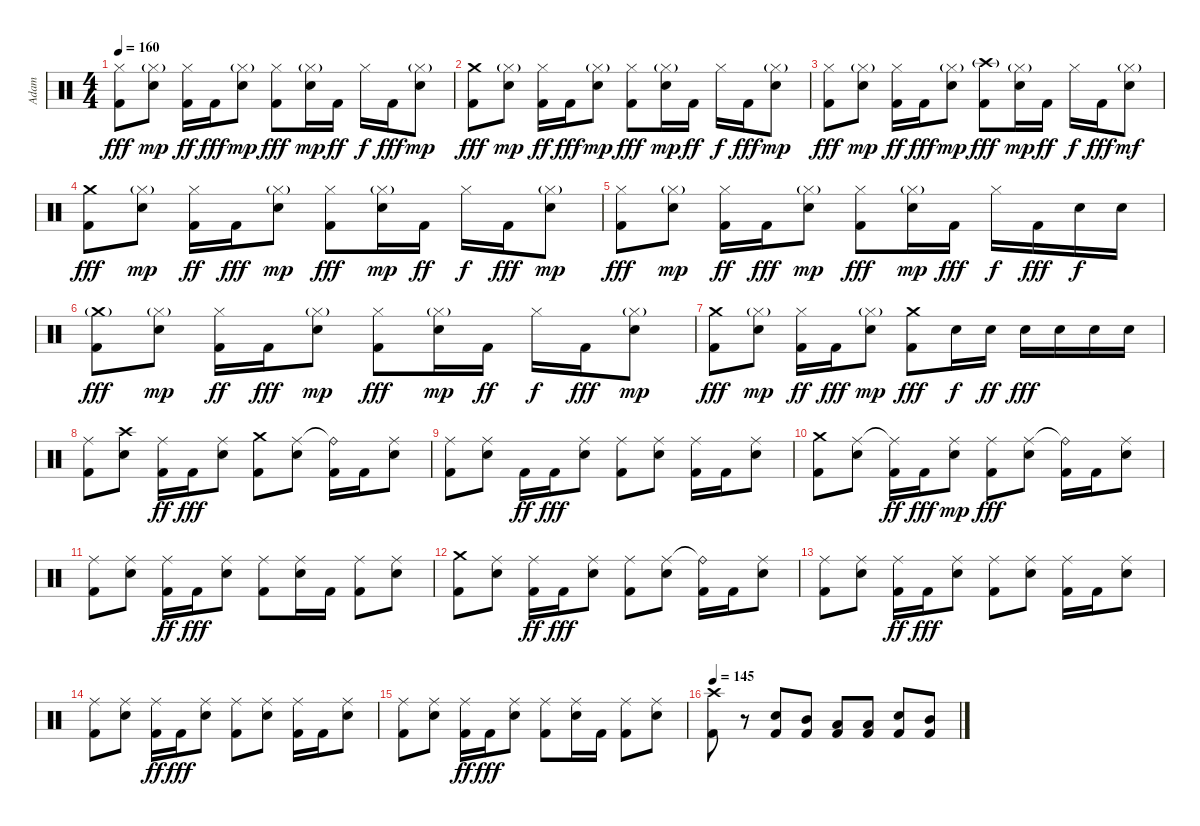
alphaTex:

\track ("Adam" "Adam") {instrument percussion}
\staff {score}
\articulation defaults
\ts (4 4)
\tempo 160
\clef neutral
\ks c
("Hi-Hat (closed)" "Kick (hit) 2").8{dy fff} ("Hi-Hat (closed)"{g} "Electric Snare (hit)").8{dy mp} ("Hi-Hat (closed)" "Kick (hit) 2").16{dy ff} "Kick (hit) 2".16{dy fff} ("Hi-Hat (closed)"{g} "Electric Snare (hit)").8{dy mp} ("Hi-Hat (closed)" "Kick (hit) 2").8{dy fff} ("Hi-Hat (closed)"{g} "Electric Snare (hit)").16{dy mp} "Kick (hit) 2".16{dy ff} "Hi-Hat (closed)".16{dy f} "Kick (hit) 2".16{dy fff} ("Hi-Hat (closed)"{g} "Electric Snare (hit)").8{dy mp} |
("Crash medium (hit)" "Kick (hit) 2").8{dy fff} ("Hi-Hat (closed)"{g} "Electric Snare (hit)").8{dy mp} ("Hi-Hat (closed)" "Kick (hit) 2").16{dy ff} "Kick (hit) 2".16{dy fff} ("Hi-Hat (closed)"{g} "Electric Snare (hit)").8{dy mp} ("Hi-Hat (closed)" "Kick (hit) 2").8{dy fff} ("Hi-Hat (closed)"{g} "Electric Snare (hit)").16{dy mp} "Kick (hit) 2".16{dy ff} "Hi-Hat (closed)".16{dy f} "Kick (hit) 2".16{dy fff} ("Hi-Hat (closed)"{g} "Electric Snare (hit)").8{dy mp} |
("Hi-Hat (closed)" "Kick (hit) 2").8{dy fff} ("Hi-Hat (closed)"{g} "Electric Snare (hit)").8{dy mp} ("Hi-Hat (closed)" "Kick (hit) 2").16{dy ff} "Kick (hit) 2".16{dy fff} ("Hi-Hat (closed)"{g} "Electric Snare (hit)").8{dy mp} ("Crash high (hit)"{g} "Kick (hit) 2").8{dy fff} ("Hi-Hat (closed)"{g} "Electric Snare (hit)").16{dy mp} "Kick (hit) 2".16{dy ff} "Hi-Hat (closed)".16{dy f} "Kick (hit) 2".16{dy fff} ("Hi-Hat (closed)"{g} "Electric Snare (hit)").8{dy mf} |
("Crash medium (hit)" "Kick (hit) 2").8{dy fff} ("Hi-Hat (closed)"{g} "Electric Snare (hit)").8{dy mp} ("Hi-Hat (closed)" "Kick (hit) 2").16{dy ff} "Kick (hit) 2".16{dy fff} ("Hi-Hat (closed)"{g} "Electric Snare (hit)").8{dy mp} ("Hi-Hat (closed)" "Kick (hit) 2").8{dy fff} ("Hi-Hat (closed)"{g} "Electric Snare (hit)").16{dy mp} "Kick (hit) 2".16{dy ff} "Hi-Hat (closed)".16{dy f} "Kick (hit) 2".16{dy fff} ("Hi-Hat (closed)"{g} "Electric Snare (hit)").8{dy mp} |
("Hi-Hat (closed)" "Kick (hit) 2").8{dy fff} ("Hi-Hat (closed)"{g} "Electric Snare (hit)").8{dy mp} ("Hi-Hat (closed)" "Kick (hit) 2").16{dy ff} "Kick (hit) 2".16{dy fff} ("Hi-Hat (closed)"{g} "Electric Snare (hit)").8{dy mp} ("Hi-Hat (closed)" "Kick (hit) 2").8{dy fff} ("Hi-Hat (closed)"{g} "Electric Snare (hit)").16{dy mp} "Kick (hit) 2".16{dy fff} "Hi-Hat (closed)".16{dy f} "Kick (hit) 2".16{dy fff} "Electric Snare (hit)".16{dy f} "Electric Snare (hit)".16 |
("Crash medium (hit)"{g} "Kick (hit) 2").8{dy fff} ("Hi-Hat (closed)"{g} "Electric Snare (hit)").8{dy mp} ("Hi-Hat (closed)" "Kick (hit) 2").16{dy ff} "Kick (hit) 2".16{dy fff} ("Hi-Hat (closed)"{g} "Electric Snare (hit)").8{dy mp} ("Hi-Hat (closed)" "Kick (hit) 2").8{dy fff} ("Hi-Hat (closed)"{g} "Electric Snare (hit)").16{dy mp} "Kick (hit) 2".16{dy ff} "Hi-Hat (closed)".16{dy f} "Kick (hit) 2".16{dy fff} ("Hi-Hat (closed)"{g} "Electric Snare (hit)").8{dy mp} |
("Crash medium (hit)" "Kick (hit) 2").8{dy fff} ("Hi-Hat (closed)"{g} "Electric Snare (hit)").8{dy mp} ("Hi-Hat (closed)" "Kick (hit) 2").16{dy ff} "Kick (hit) 2".16{dy fff} ("Hi-Hat (closed)"{g} "Electric Snare (hit)").8{dy mp} ("Crash medium (hit)" "Kick (hit) 2").8{dy fff} "Electric Snare (hit)".16{dy f} "Electric Snare (hit)".16{dy ff} "Electric Snare (hit)".16{dy fff} "Electric Snare (hit)".16 "Electric Snare (hit)".16 "Electric Snare (hit)".16 |
("Ride (middle)" "Kick (hit) 2").8 ("Crash high (hit)" "Electric Snare (hit)").8 ("Ride (middle)" "Kick (hit) 2").16{dy ff} "Kick (hit) 2".16{dy fff} ("Ride (middle)" "Electric Snare (hit)").8 ("Crash medium (hit)" "Kick (hit) 2").8 ("Ride (middle)" "Electric Snare (hit)").8 ("Ride (bell)"{t} "Kick (hit) 2").16 "Kick (hit) 2".16 ("Ride (middle)" "Electric Snare (hit)").8 |
("Ride (middle)" "Kick (hit) 2").8 ("Ride (middle)" "Electric Snare (hit)").8 "Kick (hit) 2".16{dy ff} "Kick (hit) 2".16{dy fff} ("Ride (middle)" "Electric Snare (hit)").8 ("Ride (middle)" "Kick (hit) 2").8 ("Ride (middle)" "Electric Snare (hit)").8 ("Ride (middle)" "Kick (hit) 2").16 "Kick (hit) 2".16 ("Ride (middle)" "Electric Snare (hit)").8 |
("Crash medium (hit)" "Kick (hit) 2").8 ("Ride (middle)" "Electric Snare (hit)").8 ("Ride (middle)"{t} "Kick (hit) 2").16{dy ff} "Kick (hit) 2".16{dy fff} ("Ride (middle)" "Electric Snare (hit)").8{dy mp} ("Ride (middle)" "Kick (hit) 2").8{dy fff} ("Ride (middle)" "Electric Snare (hit)").8 ("Ride (bell)"{t} "Kick (hit) 2").16 "Kick (hit) 2".16 ("Ride (middle)" "Electric Snare (hit)").8 |
("Ride (middle)" "Kick (hit) 2").8 ("Ride (middle)" "Electric Snare (hit)").8 ("Ride (middle)" "Kick (hit) 2").16{dy ff} "Kick (hit) 2".16{dy fff} ("Ride (middle)" "Electric Snare (hit)").8 ("Ride (middle)" "Kick (hit) 2").8 ("Ride (middle)" "Electric Snare (hit)").16 "Kick (hit) 2".16 ("Ride (middle)" "Kick (hit) 2").8 ("Ride (middle)" "Electric Snare (hit)").8 |
("Crash medium (hit)" "Kick (hit) 2").8 ("Ride (middle)" "Electric Snare (hit)").8 ("Ride (middle)" "Kick (hit) 2").16{dy ff} "Kick (hit) 2".16{dy fff} ("Ride (middle)" "Electric Snare (hit)").8 ("Ride (middle)" "Kick (hit) 2").8 ("Ride (middle)" "Electric Snare (hit)").8 ("Ride (bell)"{t} "Kick (hit) 2").16 "Kick (hit) 2".16 ("Ride (middle)" "Electric Snare (hit)").8 |
("Ride (middle)" "Kick (hit) 2").8 ("Ride (middle)" "Electric Snare (hit)").8 ("Ride (middle)" "Kick (hit) 2").16{dy ff} "Kick (hit) 2".16{dy fff} ("Ride (middle)" "Electric Snare (hit)").8 ("Ride (middle)" "Kick (hit) 2").8 ("Ride (middle)" "Electric Snare (hit)").8 ("Ride (middle)" "Kick (hit) 2").16 "Kick (hit) 2".16 ("Ride (middle)" "Electric Snare (hit)").8 |
("Ride (middle)" "Kick (hit) 2").8 ("Ride (middle)" "Electric Snare (hit)").8 ("Ride (middle)" "Kick (hit) 2").16{dy ff} "Kick (hit) 2".16{dy fff} ("Ride (middle)" "Electric Snare (hit)").8 ("Ride (middle)" "Kick (hit) 2").8 ("Ride (middle)" "Electric Snare (hit)").8 ("Ride (middle)" "Kick (hit) 2").16 "Kick (hit) 2".16 ("Ride (middle)" "Electric Snare (hit)").8 |
("Ride (middle)" "Kick (hit) 2").8 ("Ride (middle)" "Electric Snare (hit)").8 ("Ride (middle)" "Kick (hit) 2").16{dy ff} "Kick (hit) 2".16{dy fff} ("Ride (middle)" "Electric Snare (hit)").8 ("Ride (middle)" "Kick (hit) 2").8 ("Ride (middle)" "Electric Snare (hit)").16 "Kick (hit) 2".16 ("Ride (middle)" "Kick (hit) 2").8 ("Ride (middle)" "Electric Snare (hit)").8 |
\tempo 145
("Crash high (hit)" "Kick (hit) 2").8 r.8 ("Electric Snare (hit)" "Kick (hit) 2").8 ("Mid Tom (hit)" "Kick (hit) 2").8 ("Low Tom (hit)" "Kick (hit) 2").8 ("Low Tom (hit)" "Kick (hit) 2").8 ("Electric Snare (hit)" "Kick (hit) 2").8 ("Mid Tom (hit)" "Kick (hit) 2").8
